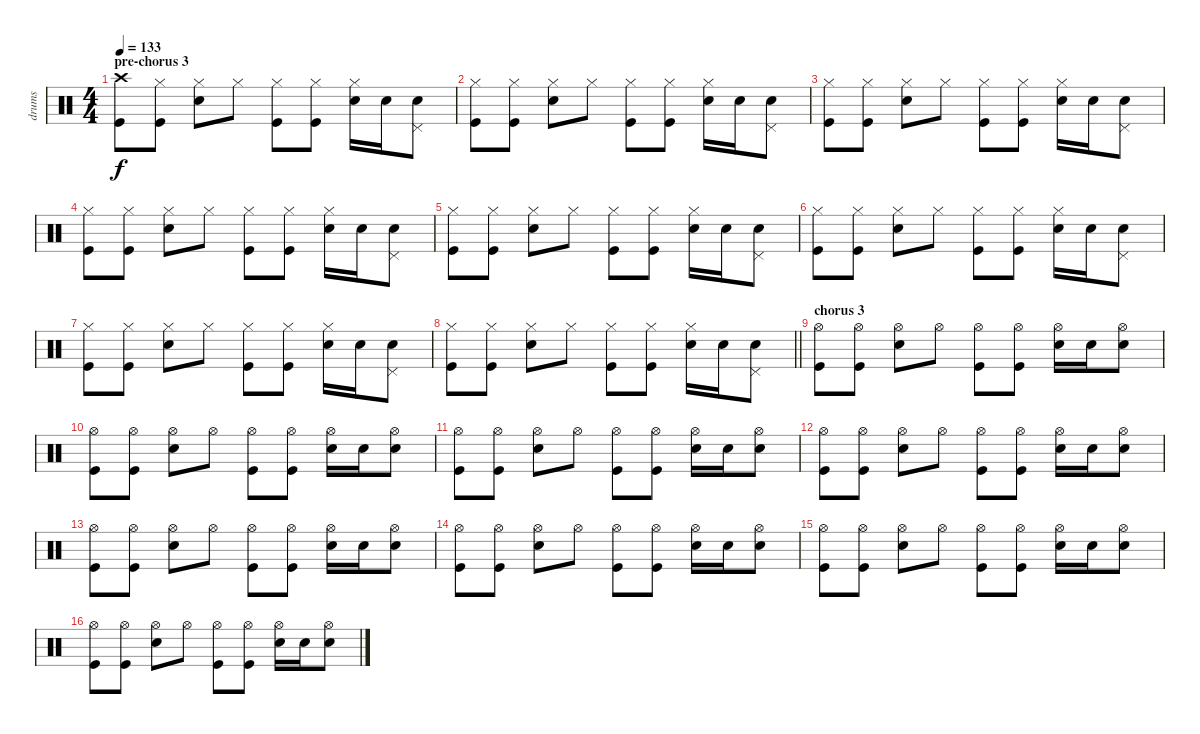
\track ("drums" "drums") {instrument percussion}
\staff {score}
\articulation defaults
\ts (4 4)
\section ("" "pre-chorus 3")
\tempo 133
\clef neutral
\ks c
("Kick (hit)" "Crash high (hit)").8{dy f} ("Kick (hit)" "Hi-Hat (closed)").8 ("Electric Snare (hit)" "Hi-Hat (closed)").8 "Hi-Hat (closed)".8 ("Kick (hit)" "Hi-Hat (closed)").8 ("Kick (hit)" "Hi-Hat (closed)").8 ("Electric Snare (hit)" "Hi-Hat (closed)").16 "Electric Snare (hit)".16 ("Electric Snare (hit)" "Pedal Hi-Hat (hit)").8 |
("Kick (hit)" "Hi-Hat (closed)").8 ("Kick (hit)" "Hi-Hat (closed)").8 ("Electric Snare (hit)" "Hi-Hat (closed)").8 "Hi-Hat (closed)".8 ("Kick (hit)" "Hi-Hat (closed)").8 ("Kick (hit)" "Hi-Hat (closed)").8 ("Electric Snare (hit)" "Hi-Hat (closed)").16 "Electric Snare (hit)".16 ("Electric Snare (hit)" "Pedal Hi-Hat (hit)").8 |
("Kick (hit)" "Hi-Hat (closed)").8 ("Kick (hit)" "Hi-Hat (closed)").8 ("Electric Snare (hit)" "Hi-Hat (closed)").8 "Hi-Hat (closed)".8 ("Kick (hit)" "Hi-Hat (closed)").8 ("Kick (hit)" "Hi-Hat (closed)").8 ("Electric Snare (hit)" "Hi-Hat (closed)").16 "Electric Snare (hit)".16 ("Electric Snare (hit)" "Pedal Hi-Hat (hit)").8 |
("Kick (hit)" "Hi-Hat (closed)").8 ("Kick (hit)" "Hi-Hat (closed)").8 ("Electric Snare (hit)" "Hi-Hat (closed)").8 "Hi-Hat (closed)".8 ("Kick (hit)" "Hi-Hat (closed)").8 ("Kick (hit)" "Hi-Hat (closed)").8 ("Electric Snare (hit)" "Hi-Hat (closed)").16 "Electric Snare (hit)".16 ("Electric Snare (hit)" "Pedal Hi-Hat (hit)").8 |
("Kick (hit)" "Hi-Hat (closed)").8 ("Kick (hit)" "Hi-Hat (closed)").8 ("Electric Snare (hit)" "Hi-Hat (closed)").8 "Hi-Hat (closed)".8 ("Kick (hit)" "Hi-Hat (closed)").8 ("Kick (hit)" "Hi-Hat (closed)").8 ("Electric Snare (hit)" "Hi-Hat (closed)").16 "Electric Snare (hit)".16 ("Electric Snare (hit)" "Pedal Hi-Hat (hit)").8 |
("Kick (hit)" "Hi-Hat (closed)").8 ("Kick (hit)" "Hi-Hat (closed)").8 ("Electric Snare (hit)" "Hi-Hat (closed)").8 "Hi-Hat (closed)".8 ("Kick (hit)" "Hi-Hat (closed)").8 ("Kick (hit)" "Hi-Hat (closed)").8 ("Electric Snare (hit)" "Hi-Hat (closed)").16 "Electric Snare (hit)".16 ("Electric Snare (hit)" "Pedal Hi-Hat (hit)").8 |
("Kick (hit)" "Hi-Hat (closed)").8 ("Kick (hit)" "Hi-Hat (closed)").8 ("Electric Snare (hit)" "Hi-Hat (closed)").8 "Hi-Hat (closed)".8 ("Kick (hit)" "Hi-Hat (closed)").8 ("Kick (hit)" "Hi-Hat (closed)").8 ("Electric Snare (hit)" "Hi-Hat (closed)").16 "Electric Snare (hit)".16 ("Electric Snare (hit)" "Pedal Hi-Hat (hit)").8 |
\barLineRight lightlight
("Kick (hit)" "Hi-Hat (closed)").8 ("Kick (hit)" "Hi-Hat (closed)").8 ("Electric Snare (hit)" "Hi-Hat (closed)").8 "Hi-Hat (closed)".8 ("Kick (hit)" "Hi-Hat (closed)").8 ("Kick (hit)" "Hi-Hat (closed)").8 ("Electric Snare (hit)" "Hi-Hat (closed)").16 "Electric Snare (hit)".16 ("Electric Snare (hit)" "Pedal Hi-Hat (hit)").8 |
\section ("" "chorus 3")
("Kick (hit)" "Hi-Hat (open)").8 ("Kick (hit)" "Hi-Hat (open)").8 ("Electric Snare (hit)" "Hi-Hat (open)").8 "Hi-Hat (open)".8 ("Kick (hit)" "Hi-Hat (open)").8 ("Kick (hit)" "Hi-Hat (open)").8 ("Electric Snare (hit)" "Hi-Hat (open)").16 "Electric Snare (hit)".16 ("Electric Snare (hit)" "Hi-Hat (open)").8 |
("Kick (hit)" "Hi-Hat (open)").8 ("Kick (hit)" "Hi-Hat (open)").8 ("Electric Snare (hit)" "Hi-Hat (open)").8 "Hi-Hat (open)".8 ("Kick (hit)" "Hi-Hat (open)").8 ("Kick (hit)" "Hi-Hat (open)").8 ("Electric Snare (hit)" "Hi-Hat (open)").16 "Electric Snare (hit)".16 ("Electric Snare (hit)" "Hi-Hat (open)").8 |
("Kick (hit)" "Hi-Hat (open)").8 ("Kick (hit)" "Hi-Hat (open)").8 ("Electric Snare (hit)" "Hi-Hat (open)").8 "Hi-Hat (open)".8 ("Kick (hit)" "Hi-Hat (open)").8 ("Kick (hit)" "Hi-Hat (open)").8 ("Electric Snare (hit)" "Hi-Hat (open)").16 "Electric Snare (hit)".16 ("Electric Snare (hit)" "Hi-Hat (open)").8 |
("Kick (hit)" "Hi-Hat (open)").8 ("Kick (hit)" "Hi-Hat (open)").8 ("Electric Snare (hit)" "Hi-Hat (open)").8 "Hi-Hat (open)".8 ("Kick (hit)" "Hi-Hat (open)").8 ("Kick (hit)" "Hi-Hat (open)").8 ("Electric Snare (hit)" "Hi-Hat (open)").16 "Electric Snare (hit)".16 ("Electric Snare (hit)" "Hi-Hat (open)").8 |
("Kick (hit)" "Hi-Hat (open)").8 ("Kick (hit)" "Hi-Hat (open)").8 ("Electric Snare (hit)" "Hi-Hat (open)").8 "Hi-Hat (open)".8 ("Kick (hit)" "Hi-Hat (open)").8 ("Kick (hit)" "Hi-Hat (open)").8 ("Electric Snare (hit)" "Hi-Hat (open)").16 "Electric Snare (hit)".16 ("Electric Snare (hit)" "Hi-Hat (open)").8 |
("Kick (hit)" "Hi-Hat (open)").8 ("Kick (hit)" "Hi-Hat (open)").8 ("Electric Snare (hit)" "Hi-Hat (open)").8 "Hi-Hat (open)".8 ("Kick (hit)" "Hi-Hat (open)").8 ("Kick (hit)" "Hi-Hat (open)").8 ("Electric Snare (hit)" "Hi-Hat (open)").16 "Electric Snare (hit)".16 ("Electric Snare (hit)" "Hi-Hat (open)").8 |
("Kick (hit)" "Hi-Hat (open)").8 ("Kick (hit)" "Hi-Hat (open)").8 ("Electric Snare (hit)" "Hi-Hat (open)").8 "Hi-Hat (open)".8 ("Kick (hit)" "Hi-Hat (open)").8 ("Kick (hit)" "Hi-Hat (open)").8 ("Electric Snare (hit)" "Hi-Hat (open)").16 "Electric Snare (hit)".16 ("Electric Snare (hit)" "Hi-Hat (open)").8 |
("Kick (hit)" "Hi-Hat (open)").8 ("Kick (hit)" "Hi-Hat (open)").8 ("Electric Snare (hit)" "Hi-Hat (open)").8 "Hi-Hat (open)".8 ("Kick (hit)" "Hi-Hat (open)").8 ("Kick (hit)" "Hi-Hat (open)").8 ("Electric Snare (hit)" "Hi-Hat (open)").16 "Electric Snare (hit)".16 ("Electric Snare (hit)" "Hi-Hat (open)").8
